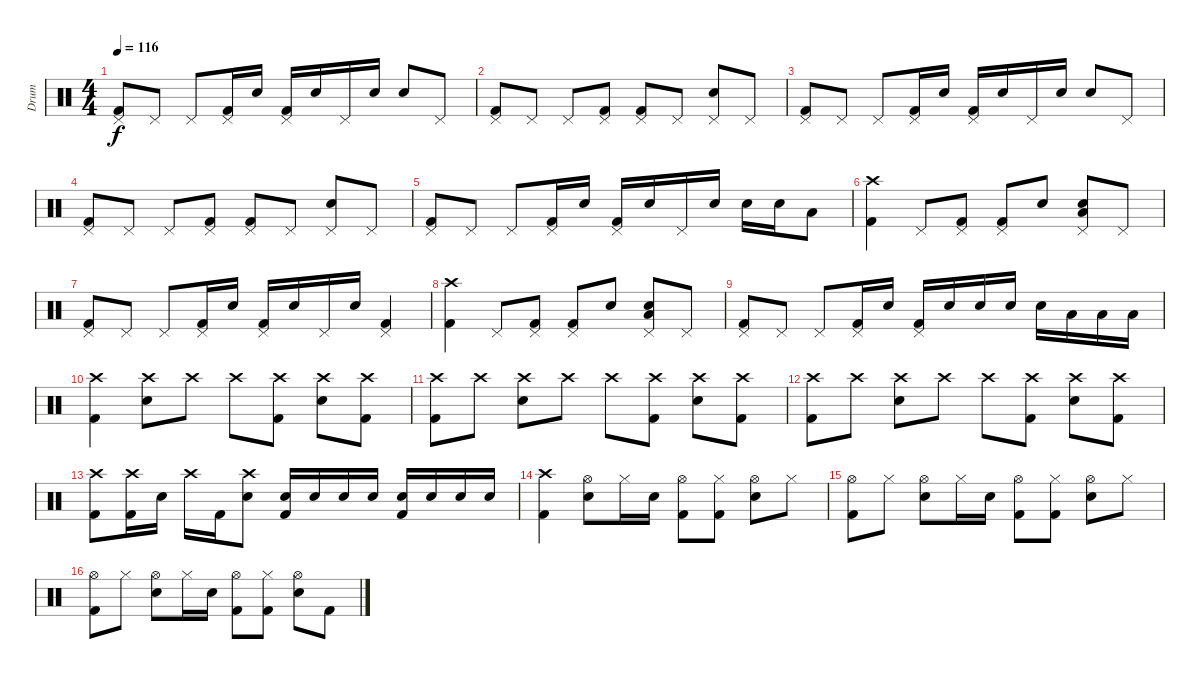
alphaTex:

\track ("Drum" "Drum") {instrument percussion}
\staff {score}
\articulation defaults
\ts (4 4)
\tempo 116
\clef neutral
\ks c
("Pedal Hi-Hat (hit)" "Kick (hit) 2").8{dy f} "Pedal Hi-Hat (hit)".8 "Pedal Hi-Hat (hit)".8 ("Pedal Hi-Hat (hit)" "Kick (hit) 2").16 "Electric Snare (hit)".16 ("Pedal Hi-Hat (hit)" "Kick (hit) 2").16 "Electric Snare (hit)".16 "Pedal Hi-Hat (hit)".16 "Electric Snare (hit)".16 "Electric Snare (hit)".8 "Pedal Hi-Hat (hit)".8 |
("Pedal Hi-Hat (hit)" "Kick (hit) 2").8 "Pedal Hi-Hat (hit)".8 "Pedal Hi-Hat (hit)".8 ("Pedal Hi-Hat (hit)" "Kick (hit) 2").8 ("Pedal Hi-Hat (hit)" "Kick (hit) 2").8 "Pedal Hi-Hat (hit)".8 ("Pedal Hi-Hat (hit)" "Electric Snare (hit)").8 "Pedal Hi-Hat (hit)".8 |
("Pedal Hi-Hat (hit)" "Kick (hit) 2").8 "Pedal Hi-Hat (hit)".8 "Pedal Hi-Hat (hit)".8 ("Pedal Hi-Hat (hit)" "Kick (hit) 2").16 "Electric Snare (hit)".16 ("Pedal Hi-Hat (hit)" "Kick (hit) 2").16 "Electric Snare (hit)".16 "Pedal Hi-Hat (hit)".16 "Electric Snare (hit)".16 "Electric Snare (hit)".8 "Pedal Hi-Hat (hit)".8 |
("Pedal Hi-Hat (hit)" "Kick (hit) 2").8 "Pedal Hi-Hat (hit)".8 "Pedal Hi-Hat (hit)".8 ("Pedal Hi-Hat (hit)" "Kick (hit) 2").8 ("Pedal Hi-Hat (hit)" "Kick (hit) 2").8 "Pedal Hi-Hat (hit)".8 ("Pedal Hi-Hat (hit)" "Electric Snare (hit)").8 "Pedal Hi-Hat (hit)".8 |
("Pedal Hi-Hat (hit)" "Kick (hit) 2").8 "Pedal Hi-Hat (hit)".8 "Pedal Hi-Hat (hit)".8 ("Pedal Hi-Hat (hit)" "Kick (hit) 2").16 "Electric Snare (hit)".16 ("Pedal Hi-Hat (hit)" "Kick (hit) 2").16 "Electric Snare (hit)".16 "Pedal Hi-Hat (hit)".16 "Electric Snare (hit)".16 "Electric Snare (hit)".16 "Electric Snare (hit)".16 "Low Tom (hit)".8 |
("Crash high (hit)" "Kick (hit) 2").4 "Pedal Hi-Hat (hit)".8 ("Pedal Hi-Hat (hit)" "Kick (hit) 2").8 ("Pedal Hi-Hat (hit)" "Kick (hit) 2").8 "Electric Snare (hit)".8 ("Pedal Hi-Hat (hit)" "Electric Snare (hit)" "Low Floor Tom (hit)").8 "Pedal Hi-Hat (hit)".8 |
("Pedal Hi-Hat (hit)" "Kick (hit) 2").8 "Pedal Hi-Hat (hit)".8 "Pedal Hi-Hat (hit)".8 ("Pedal Hi-Hat (hit)" "Kick (hit) 2").16 "Electric Snare (hit)".16 ("Pedal Hi-Hat (hit)" "Kick (hit) 2").16 "Electric Snare (hit)".16 "Pedal Hi-Hat (hit)".16 "Electric Snare (hit)".16 ("Pedal Hi-Hat (hit)" "Kick (hit) 2").4 |
("Crash high (hit)" "Kick (hit) 2").4 "Pedal Hi-Hat (hit)".8 ("Pedal Hi-Hat (hit)" "Kick (hit) 2").8 ("Pedal Hi-Hat (hit)" "Kick (hit) 2").8 "Electric Snare (hit)".8 ("Pedal Hi-Hat (hit)" "Electric Snare (hit)" "Low Floor Tom (hit)").8 "Pedal Hi-Hat (hit)".8 |
("Pedal Hi-Hat (hit)" "Kick (hit) 2").8 "Pedal Hi-Hat (hit)".8 "Pedal Hi-Hat (hit)".8 ("Pedal Hi-Hat (hit)" "Kick (hit) 2").16 "Electric Snare (hit)".16 ("Pedal Hi-Hat (hit)" "Kick (hit) 2").16 "Electric Snare (hit)".16 "Electric Snare (hit)".16 "Electric Snare (hit)".16 "Electric Snare (hit)".16 "Low Tom (hit)".16 "Low Floor Tom (hit)".16 "Low Floor Tom (hit)".16 |
("Crash high (hit)" "Kick (hit) 2").4 ("Crash high (hit)" "Electric Snare (hit)").8 "Crash high (hit)".8 "Crash high (hit)".8 ("Crash high (hit)" "Kick (hit) 2").8 ("Crash high (hit)" "Electric Snare (hit)").8 ("Crash high (hit)" "Kick (hit) 2").8 |
("Crash high (hit)" "Kick (hit) 2").8 "Crash high (hit)".8 ("Crash high (hit)" "Electric Snare (hit)").8 "Crash high (hit)".8 "Crash high (hit)".8 ("Crash high (hit)" "Kick (hit) 2").8 ("Crash high (hit)" "Electric Snare (hit)").8 ("Crash high (hit)" "Kick (hit) 2").8 |
("Crash high (hit)" "Kick (hit) 2").8 "Crash high (hit)".8 ("Crash high (hit)" "Electric Snare (hit)").8 "Crash high (hit)".8 "Crash high (hit)".8 ("Crash high (hit)" "Kick (hit) 2").8 ("Crash high (hit)" "Electric Snare (hit)").8 ("Crash high (hit)" "Kick (hit) 2").8 |
("Crash high (hit)" "Kick (hit) 2").8 ("Crash high (hit)" "Kick (hit) 2").16 "Electric Snare (hit)".16 "Crash high (hit)".16 "Kick (hit) 2".16 ("Crash high (hit)" "Electric Snare (hit)").8 ("Electric Snare (hit)" "Kick (hit) 2").16 "Electric Snare (hit)".16 "Electric Snare (hit)".16 "Electric Snare (hit)".16 ("Electric Snare (hit)" "Kick (hit) 2").16 "Electric Snare (hit)".16 "Electric Snare (hit)".16 "Electric Snare (hit)".16 |
("Crash high (hit)" "Kick (hit) 2").4 ("Hi-Hat (open)" "Electric Snare (hit)").8 "Hi-Hat (closed)".16 "Electric Snare (hit)".16 ("Hi-Hat (open)" "Kick (hit) 2").8 ("Hi-Hat (closed)" "Kick (hit) 2").8 ("Hi-Hat (open)" "Electric Snare (hit)").8 "Hi-Hat (closed)".8 |
("Hi-Hat (open)" "Kick (hit) 2").8 "Hi-Hat (closed)".8 ("Hi-Hat (open)" "Electric Snare (hit)").8 "Hi-Hat (closed)".16 "Electric Snare (hit)".16 ("Hi-Hat (open)" "Kick (hit) 2").8 ("Hi-Hat (closed)" "Kick (hit) 2").8 ("Hi-Hat (open)" "Electric Snare (hit)").8 "Hi-Hat (closed)".8 |
("Hi-Hat (open)" "Kick (hit) 2").8 "Hi-Hat (closed)".8 ("Hi-Hat (open)" "Electric Snare (hit)").8 "Hi-Hat (closed)".16 "Electric Snare (hit)".16 ("Hi-Hat (open)" "Kick (hit) 2").8 ("Hi-Hat (closed)" "Kick (hit) 2").8 ("Hi-Hat (open)" "Electric Snare (hit)").8 "Kick (hit) 2".8
